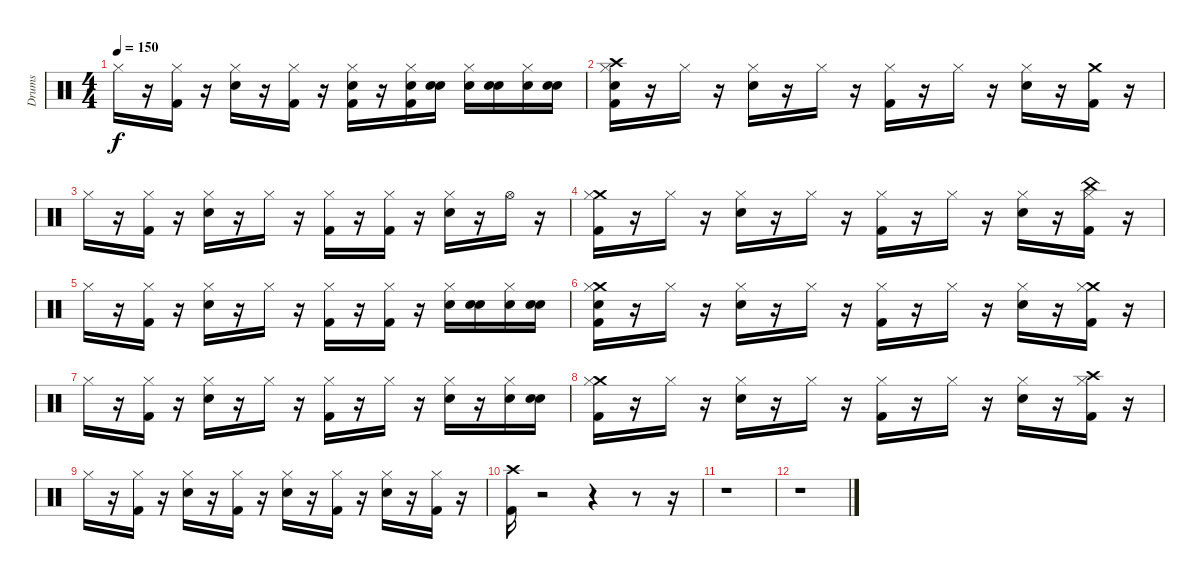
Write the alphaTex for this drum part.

\track ("Drums" "Drums") {instrument percussion}
\staff {score}
\articulation defaults
\ts (4 4)
\tempo 150
\clef neutral
\ks c "Hi-Hat (closed)".16{dy f}
r.16 ("Kick (hit) 2" "Hi-Hat (closed)").16 r.16 ("Snare (hit) 2" "Hi-Hat (closed)").16 r.16 ("Kick (hit) 2" "Hi-Hat (closed)").16 r.16 ("Electric Snare (hit)" "Kick (hit) 2" "Hi-Hat (closed)").16 r.16 ("Snare (hit) 2" "Kick (hit) 2" "Hi-Hat (closed)").16 ("Snare (hit)" "Snare (hit) 2").16 ("Snare (hit) 2" "Hi-Hat (closed)").16 ("Snare (hit)" "Snare (hit) 2").16 ("Snare (hit) 2" "Hi-Hat (closed)").16 ("Snare (hit)" "Snare (hit) 2").16 |
("Snare (hit)" "Crash high (hit)" "Kick (hit) 2" "Hi-Hat (closed)").16 r.16 "Hi-Hat (closed)".16 r.16 ("Snare (hit) 2" "Hi-Hat (closed)").16 r.16 "Hi-Hat (closed)".16 r.16 ("Kick (hit) 2" "Hi-Hat (closed)").16 r.16 "Hi-Hat (closed)".16 r.16 ("Snare (hit) 2" "Hi-Hat (closed)").16 r.16 ("Kick (hit) 2" "Crash medium (hit)").16 r.16 |
"Hi-Hat (closed)".16 r.16 ("Kick (hit) 2" "Hi-Hat (closed)").16 r.16 ("Snare (hit) 2" "Hi-Hat (closed)").16 r.16 "Hi-Hat (closed)".16 r.16 ("Kick (hit) 2" "Hi-Hat (closed)").16 r.16 ("Kick (hit) 2" "Hi-Hat (closed)").16 r.16 ("Snare (hit) 2" "Hi-Hat (closed)").16 r.16 "Hi-Hat (open)".16 r.16 |
("Crash medium (hit)" "Kick (hit) 2" "Hi-Hat (closed)").16 r.16 "Hi-Hat (closed)".16 r.16 ("Snare (hit) 2" "Hi-Hat (closed)").16 r.16 "Hi-Hat (closed)".16 r.16 ("Kick (hit) 2" "Hi-Hat (closed)").16 r.16 "Hi-Hat (closed)".16 r.16 ("Snare (hit) 2" "Hi-Hat (closed)").16 r.16 ("China (hit)" "Kick (hit) 2" "Hi-Hat (closed)").16 r.16 |
"Hi-Hat (closed)".16 r.16 ("Kick (hit) 2" "Hi-Hat (closed)").16 r.16 ("Snare (hit) 2" "Hi-Hat (closed)").16 r.16 "Hi-Hat (closed)".16 r.16 ("Kick (hit) 2" "Hi-Hat (closed)").16 r.16 ("Kick (hit) 2" "Hi-Hat (closed)").16 r.16 ("Snare (hit) 2" "Hi-Hat (closed)").16 ("Snare (hit)" "Snare (hit) 2").16 ("Snare (hit) 2" "Hi-Hat (closed)").16 ("Snare (hit)" "Snare (hit) 2").16 |
("Snare (hit)" "Crash medium (hit)" "Kick (hit) 2" "Hi-Hat (closed)").16 r.16 "Hi-Hat (closed)".16 r.16 ("Snare (hit) 2" "Hi-Hat (closed)").16 r.16 "Hi-Hat (closed)".16 r.16 ("Kick (hit) 2" "Hi-Hat (closed)").16 r.16 "Hi-Hat (closed)".16 r.16 ("Snare (hit) 2" "Hi-Hat (closed)").16 r.16 ("Crash medium (hit)" "Kick (hit) 2" "Hi-Hat (closed)").16 r.16 |
"Hi-Hat (closed)".16 r.16 ("Kick (hit) 2" "Hi-Hat (closed)").16 r.16 ("Snare (hit) 2" "Hi-Hat (closed)").16 r.16 "Hi-Hat (closed)".16 r.16 ("Kick (hit) 2" "Hi-Hat (closed)").16 r.16 "Hi-Hat (closed)".16 r.16 ("Snare (hit) 2" "Hi-Hat (closed)").16 r.16 ("Snare (hit) 2" "Hi-Hat (closed)").16 ("Snare (hit)" "Snare (hit) 2").16 |
("Crash medium (hit)" "Kick (hit) 2" "Hi-Hat (closed)").16 r.16 "Hi-Hat (closed)".16 r.16 ("Snare (hit) 2" "Hi-Hat (closed)").16 r.16 "Hi-Hat (closed)".16 r.16 ("Kick (hit) 2" "Hi-Hat (closed)").16 r.16 "Hi-Hat (closed)".16 r.16 ("Snare (hit) 2" "Hi-Hat (closed)").16 r.16 ("Crash high (hit)" "Kick (hit) 2" "Hi-Hat (closed)").16 r.16 |
"Hi-Hat (closed)".16 r.16 ("Kick (hit) 2" "Hi-Hat (closed)").16 r.16 ("Snare (hit) 2" "Hi-Hat (closed)").16 r.16 ("Kick (hit) 2" "Hi-Hat (closed)").16 r.16 ("Snare (hit) 2" "Hi-Hat (closed)").16 r.16 ("Kick (hit) 2" "Hi-Hat (closed)").16 r.16 ("Snare (hit) 2" "Hi-Hat (closed)").16 r.16 ("Hi-Hat (closed)" "Kick (hit) 2").16 r.16 |
("Crash high (hit)" "Kick (hit) 2").16 r.2 r.4 r.8 r.16 |
r.1 |
r.1
